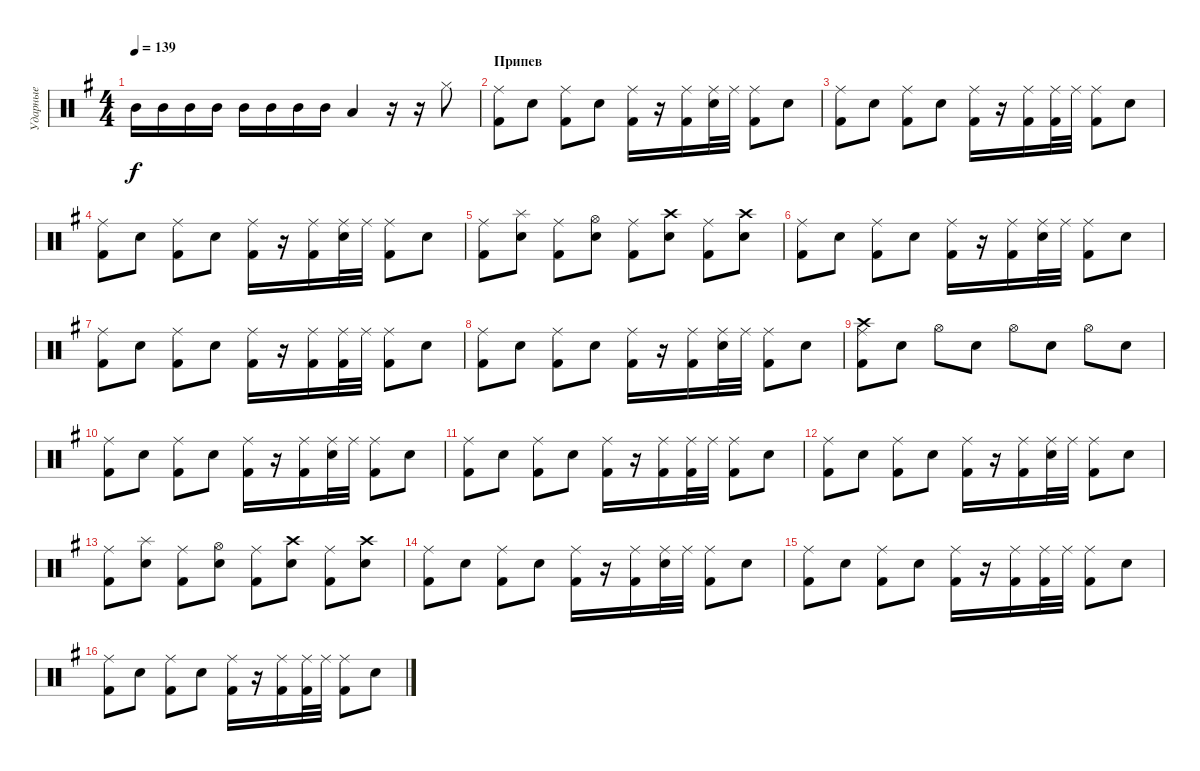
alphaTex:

\track ("Ударные" "Ударные") {instrument percussion}
\staff {score}
\articulation defaults
\ts (4 4)
\tempo 139
\clef neutral
\ks eminor "Mid Tom (hit)".16{dy f} "Mid Tom (hit)".16 "Mid Tom (hit)".16 "Mid Tom (hit)".16 "Mid Tom (hit)".16 "Mid Tom (hit)".16 "Mid Tom (hit)".16 "Mid Tom (hit)".16 "Low Tom (hit)".4
r.16 r.16 "Hi-Hat (closed)".8 |
\section ("" "Припев")
("Ride (middle)" "Kick (hit) 2").8 "Snare (hit) 2".8 ("Ride (middle)" "Kick (hit) 2").8 "Snare (hit) 2".8 ("Ride (middle)" "Kick (hit) 2").16 r.16 ("Ride (middle)" "Kick (hit) 2").16 ("Ride (middle)" "Snare (hit) 2").32 "Ride (middle)".32 ("Ride (middle)" "Kick (hit) 2").8 "Snare (hit) 2".8 |
("Ride (middle)" "Kick (hit) 2").8 "Snare (hit) 2".8 ("Ride (middle)" "Kick (hit) 2").8 "Snare (hit) 2".8 ("Ride (middle)" "Kick (hit) 2").16 r.16 ("Ride (middle)" "Kick (hit) 2").16 ("Ride (middle)" "Kick (hit) 2").32 "Ride (middle)".32 ("Ride (middle)" "Kick (hit) 2").8 "Snare (hit) 2".8 |
("Ride (middle)" "Kick (hit) 2").8 "Snare (hit) 2".8 ("Ride (middle)" "Kick (hit) 2").8 "Snare (hit) 2".8 ("Ride (middle)" "Kick (hit) 2").16 r.16 ("Ride (middle)" "Kick (hit) 2").16 ("Ride (middle)" "Snare (hit) 2").32 "Ride (middle)".32 ("Ride (middle)" "Kick (hit) 2").8 "Snare (hit) 2".8 |
("Ride (middle)" "Kick (hit) 2").8 ("Splash (hit)" "Snare (hit) 2").8 ("Ride (middle)" "Kick (hit) 2").8 ("Hi-Hat (open)" "Snare (hit) 2").8 ("Ride (middle)" "Kick (hit) 2").8 ("Crash high (hit)" "Snare (hit) 2").8 ("Ride (middle)" "Kick (hit) 2").8 ("Crash high (hit)" "Snare (hit) 2").8 |
("Ride (middle)" "Kick (hit) 2").8 "Snare (hit) 2".8 ("Ride (middle)" "Kick (hit) 2").8 "Snare (hit) 2".8 ("Ride (middle)" "Kick (hit) 2").16 r.16 ("Ride (middle)" "Kick (hit) 2").16 ("Ride (middle)" "Snare (hit) 2").32 "Ride (middle)".32 ("Ride (middle)" "Kick (hit) 2").8 "Snare (hit) 2".8 |
("Ride (middle)" "Kick (hit) 2").8 "Snare (hit) 2".8 ("Ride (middle)" "Kick (hit) 2").8 "Snare (hit) 2".8 ("Ride (middle)" "Kick (hit) 2").16 r.16 ("Ride (middle)" "Kick (hit) 2").16 ("Ride (middle)" "Kick (hit) 2").32 "Ride (middle)".32 ("Ride (middle)" "Kick (hit) 2").8 "Snare (hit) 2".8 |
("Ride (middle)" "Kick (hit) 2").8 "Snare (hit) 2".8 ("Ride (middle)" "Kick (hit) 2").8 "Snare (hit) 2".8 ("Ride (middle)" "Kick (hit) 2").16 r.16 ("Ride (middle)" "Kick (hit) 2").16 ("Ride (middle)" "Snare (hit) 2").32 "Ride (middle)".32 ("Ride (middle)" "Kick (hit) 2").8 "Snare (hit) 2".8 |
("Crash high (hit)" "Ride (middle)" "Kick (hit) 2").8 "Snare (hit) 2".8 "Hi-Hat (open)".8 "Snare (hit) 2".8 "Hi-Hat (open)".8 "Snare (hit) 2".8 "Hi-Hat (open)".8 "Snare (hit) 2".8 |
("Ride (middle)" "Kick (hit) 2").8 "Snare (hit) 2".8 ("Ride (middle)" "Kick (hit) 2").8 "Snare (hit) 2".8 ("Ride (middle)" "Kick (hit) 2").16 r.16 ("Ride (middle)" "Kick (hit) 2").16 ("Ride (middle)" "Snare (hit) 2").32 "Ride (middle)".32 ("Ride (middle)" "Kick (hit) 2").8 "Snare (hit) 2".8 |
("Ride (middle)" "Kick (hit) 2").8 "Snare (hit) 2".8 ("Ride (middle)" "Kick (hit) 2").8 "Snare (hit) 2".8 ("Ride (middle)" "Kick (hit) 2").16 r.16 ("Ride (middle)" "Kick (hit) 2").16 ("Ride (middle)" "Kick (hit) 2").32 "Ride (middle)".32 ("Ride (middle)" "Kick (hit) 2").8 "Snare (hit) 2".8 |
("Ride (middle)" "Kick (hit) 2").8 "Snare (hit) 2".8 ("Ride (middle)" "Kick (hit) 2").8 "Snare (hit) 2".8 ("Ride (middle)" "Kick (hit) 2").16 r.16 ("Ride (middle)" "Kick (hit) 2").16 ("Ride (middle)" "Snare (hit) 2").32 "Ride (middle)".32 ("Ride (middle)" "Kick (hit) 2").8 "Snare (hit) 2".8 |
("Ride (middle)" "Kick (hit) 2").8 ("Splash (hit)" "Snare (hit) 2").8 ("Ride (middle)" "Kick (hit) 2").8 ("Hi-Hat (open)" "Snare (hit) 2").8 ("Ride (middle)" "Kick (hit) 2").8 ("Crash high (hit)" "Snare (hit) 2").8 ("Ride (middle)" "Kick (hit) 2").8 ("Crash high (hit)" "Snare (hit) 2").8 |
("Ride (middle)" "Kick (hit) 2").8 "Snare (hit) 2".8 ("Ride (middle)" "Kick (hit) 2").8 "Snare (hit) 2".8 ("Ride (middle)" "Kick (hit) 2").16 r.16 ("Ride (middle)" "Kick (hit) 2").16 ("Ride (middle)" "Snare (hit) 2").32 "Ride (middle)".32 ("Ride (middle)" "Kick (hit) 2").8 "Snare (hit) 2".8 |
("Ride (middle)" "Kick (hit) 2").8 "Snare (hit) 2".8 ("Ride (middle)" "Kick (hit) 2").8 "Snare (hit) 2".8 ("Ride (middle)" "Kick (hit) 2").16 r.16 ("Ride (middle)" "Kick (hit) 2").16 ("Ride (middle)" "Kick (hit) 2").32 "Ride (middle)".32 ("Ride (middle)" "Kick (hit) 2").8 "Snare (hit) 2".8 |
("Ride (middle)" "Kick (hit) 2").8 "Snare (hit) 2".8 ("Ride (middle)" "Kick (hit) 2").8 "Snare (hit) 2".8 ("Ride (middle)" "Kick (hit) 2").16 r.16 ("Ride (middle)" "Kick (hit) 2").16 ("Ride (middle)" "Kick (hit) 2").32 "Ride (middle)".32 ("Ride (middle)" "Kick (hit) 2").8 "Snare (hit) 2".8
